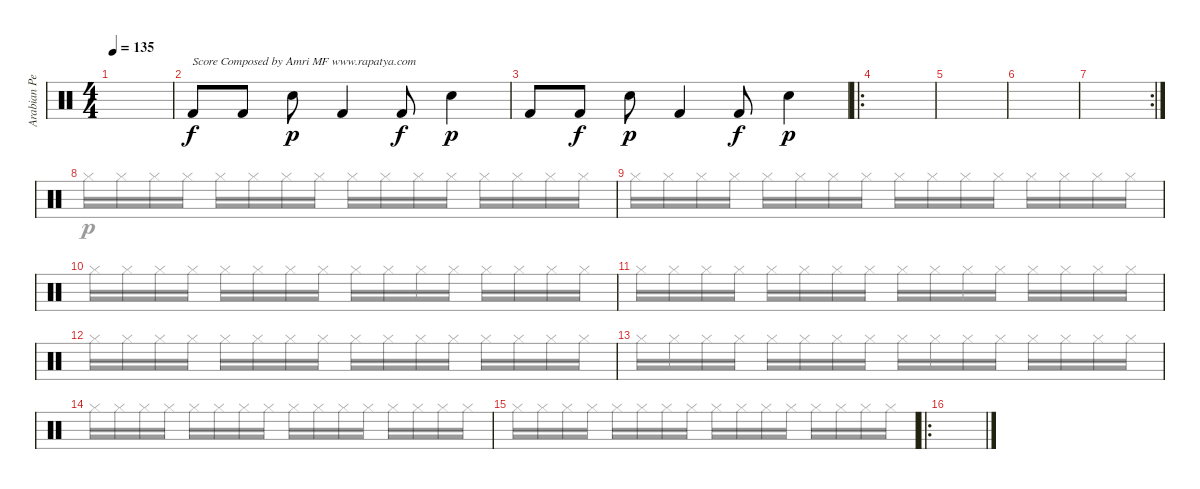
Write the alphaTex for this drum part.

\track ("Arabian Perc" "Arabian Pe") {instrument percussion}
\staff {score}
\articulation defaults
\voice
\ts (4 4)
\tempo 135
\clef neutral
\ks c
|
"Kick (hit) 2".8{txt "Score Composed by Amri MF www.rapatya.com"} "Kick (hit) 2".8{dy f} "Electric Snare (hit)".8{dy p} "Kick (hit) 2".4 "Kick (hit) 2".8{dy f} "Electric Snare (hit)".4{dy p} |
"Kick (hit) 2".8 "Kick (hit) 2".8{dy f} "Electric Snare (hit)".8{dy p} "Kick (hit) 2".4 "Kick (hit) 2".8{dy f} "Electric Snare (hit)".4{dy p} |
\ro
|
|
|
\rc 2
|
|
|
|
|
|
|
|
|
\ro
\voice
\clef neutral
\ottava regular
\simile none
\ks c
|
|
|
|
|
|
|
"Hi-Hat (closed)".16 "Hi-Hat (closed)".16 "Hi-Hat (closed)".16 "Hi-Hat (closed)".16 "Hi-Hat (closed)".16 "Hi-Hat (closed)".16 "Hi-Hat (closed)".16 "Hi-Hat (closed)".16 "Hi-Hat (closed)".16 "Hi-Hat (closed)".16 "Hi-Hat (closed)".16 "Hi-Hat (closed)".16 "Hi-Hat (closed)".16 "Hi-Hat (closed)".16 "Hi-Hat (closed)".16 "Hi-Hat (closed)".16 |
"Hi-Hat (closed)".16 "Hi-Hat (closed)".16 "Hi-Hat (closed)".16 "Hi-Hat (closed)".16 "Hi-Hat (closed)".16 "Hi-Hat (closed)".16 "Hi-Hat (closed)".16 "Hi-Hat (closed)".16 "Hi-Hat (closed)".16 "Hi-Hat (closed)".16 "Hi-Hat (closed)".16 "Hi-Hat (closed)".16 "Hi-Hat (closed)".16 "Hi-Hat (closed)".16 "Hi-Hat (closed)".16 "Hi-Hat (closed)".16 |
"Hi-Hat (closed)".16 "Hi-Hat (closed)".16 "Hi-Hat (closed)".16 "Hi-Hat (closed)".16 "Hi-Hat (closed)".16 "Hi-Hat (closed)".16 "Hi-Hat (closed)".16 "Hi-Hat (closed)".16 "Hi-Hat (closed)".16 "Hi-Hat (closed)".16 "Hi-Hat (closed)".16 "Hi-Hat (closed)".16 "Hi-Hat (closed)".16 "Hi-Hat (closed)".16 "Hi-Hat (closed)".16 "Hi-Hat (closed)".16 |
"Hi-Hat (closed)".16 "Hi-Hat (closed)".16 "Hi-Hat (closed)".16 "Hi-Hat (closed)".16 "Hi-Hat (closed)".16 "Hi-Hat (closed)".16 "Hi-Hat (closed)".16 "Hi-Hat (closed)".16 "Hi-Hat (closed)".16 "Hi-Hat (closed)".16 "Hi-Hat (closed)".16 "Hi-Hat (closed)".16 "Hi-Hat (closed)".16 "Hi-Hat (closed)".16 "Hi-Hat (closed)".16 "Hi-Hat (closed)".16 |
"Hi-Hat (closed)".16 "Hi-Hat (closed)".16 "Hi-Hat (closed)".16 "Hi-Hat (closed)".16 "Hi-Hat (closed)".16 "Hi-Hat (closed)".16 "Hi-Hat (closed)".16 "Hi-Hat (closed)".16 "Hi-Hat (closed)".16 "Hi-Hat (closed)".16 "Hi-Hat (closed)".16 "Hi-Hat (closed)".16 "Hi-Hat (closed)".16 "Hi-Hat (closed)".16 "Hi-Hat (closed)".16 "Hi-Hat (closed)".16 |
"Hi-Hat (closed)".16 "Hi-Hat (closed)".16 "Hi-Hat (closed)".16 "Hi-Hat (closed)".16 "Hi-Hat (closed)".16 "Hi-Hat (closed)".16 "Hi-Hat (closed)".16 "Hi-Hat (closed)".16 "Hi-Hat (closed)".16 "Hi-Hat (closed)".16 "Hi-Hat (closed)".16 "Hi-Hat (closed)".16 "Hi-Hat (closed)".16 "Hi-Hat (closed)".16 "Hi-Hat (closed)".16 "Hi-Hat (closed)".16 |
"Hi-Hat (closed)".16 "Hi-Hat (closed)".16 "Hi-Hat (closed)".16 "Hi-Hat (closed)".16 "Hi-Hat (closed)".16 "Hi-Hat (closed)".16 "Hi-Hat (closed)".16 "Hi-Hat (closed)".16 "Hi-Hat (closed)".16 "Hi-Hat (closed)".16 "Hi-Hat (closed)".16 "Hi-Hat (closed)".16 "Hi-Hat (closed)".16 "Hi-Hat (closed)".16 "Hi-Hat (closed)".16 "Hi-Hat (closed)".16 |
"Hi-Hat (closed)".16 "Hi-Hat (closed)".16 "Hi-Hat (closed)".16 "Hi-Hat (closed)".16 "Hi-Hat (closed)".16 "Hi-Hat (closed)".16 "Hi-Hat (closed)".16 "Hi-Hat (closed)".16 "Hi-Hat (closed)".16 "Hi-Hat (closed)".16 "Hi-Hat (closed)".16 "Hi-Hat (closed)".16 "Hi-Hat (closed)".16 "Hi-Hat (closed)".16 "Hi-Hat (closed)".16 "Hi-Hat (closed)".16 |
